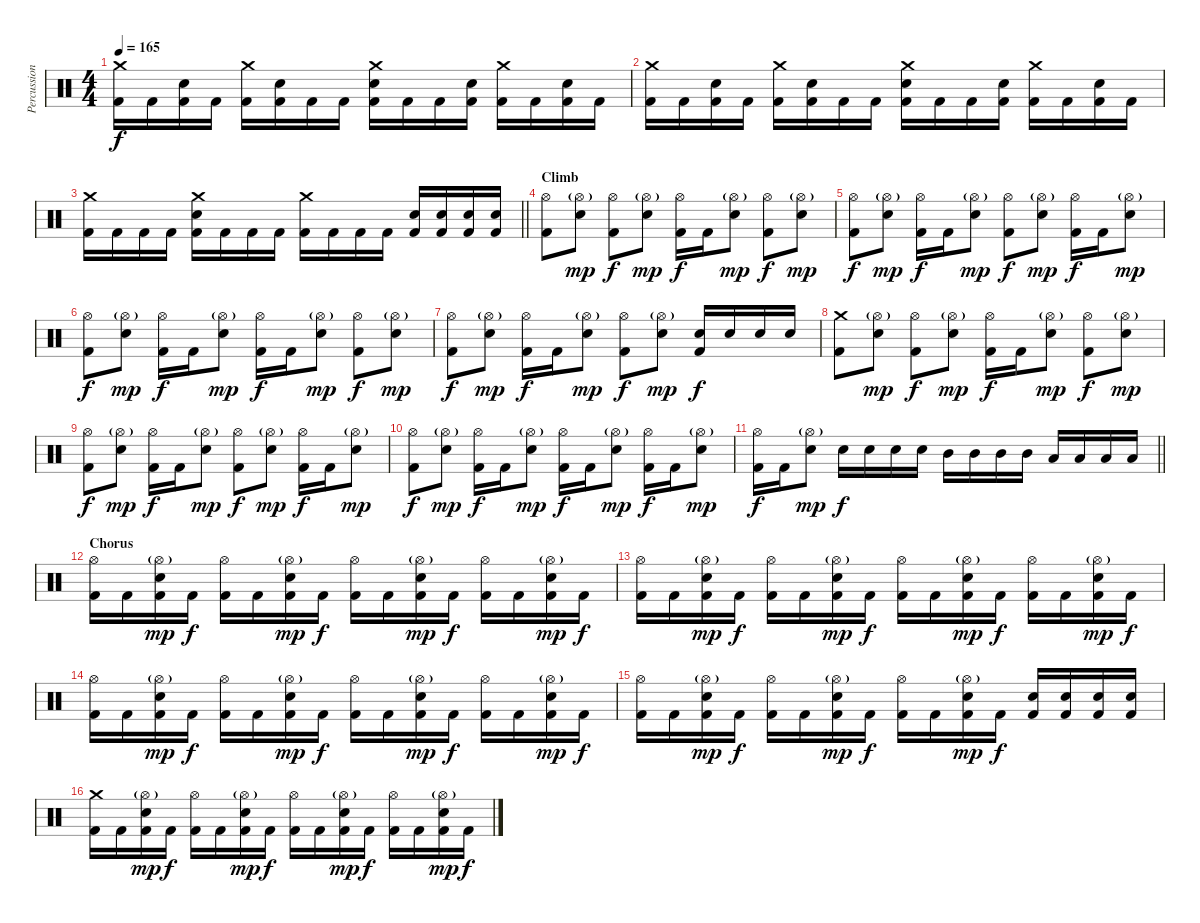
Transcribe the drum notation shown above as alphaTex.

\track ("Percussion" "Percussion") {instrument percussion}
\staff {score}
\articulation defaults
\ts (4 4)
\tempo 165
\clef neutral
\ks c
("Crash medium (hit)" "Kick (hit) 2").16{dy f} "Kick (hit) 2".16 ("Snare (hit) 2" "Kick (hit) 2").16 "Kick (hit) 2".16 ("Crash medium (hit)" "Kick (hit) 2").16 ("Snare (hit) 2" "Kick (hit) 2").16 "Kick (hit) 2".16 "Kick (hit) 2".16 ("Crash medium (hit)" "Snare (hit) 2" "Kick (hit) 2").16 "Kick (hit) 2".16 "Kick (hit) 2".16 ("Snare (hit) 2" "Kick (hit) 2").16 ("Crash medium (hit)" "Kick (hit) 2").16 "Kick (hit) 2".16 ("Snare (hit) 2" "Kick (hit) 2").16 "Kick (hit) 2".16 |
("Crash medium (hit)" "Kick (hit) 2").16 "Kick (hit) 2".16 ("Snare (hit) 2" "Kick (hit) 2").16 "Kick (hit) 2".16 ("Crash medium (hit)" "Kick (hit) 2").16 ("Snare (hit) 2" "Kick (hit) 2").16 "Kick (hit) 2".16 "Kick (hit) 2".16 ("Crash medium (hit)" "Snare (hit) 2" "Kick (hit) 2").16 "Kick (hit) 2".16 "Kick (hit) 2".16 ("Snare (hit) 2" "Kick (hit) 2").16 ("Crash medium (hit)" "Kick (hit) 2").16 "Kick (hit) 2".16 ("Snare (hit) 2" "Kick (hit) 2").16 "Kick (hit) 2".16 |
\barLineRight lightlight
("Crash medium (hit)" "Kick (hit) 2").16 "Kick (hit) 2".16 "Kick (hit) 2".16 "Kick (hit) 2".16 ("Crash medium (hit)" "Snare (hit) 2" "Kick (hit) 2").16 "Kick (hit) 2".16 "Kick (hit) 2".16 "Kick (hit) 2".16 ("Crash medium (hit)" "Kick (hit) 2").16 "Kick (hit) 2".16 "Kick (hit) 2".16 "Kick (hit) 2".16 ("Snare (hit) 2" "Kick (hit) 2").16 ("Snare (hit) 2" "Kick (hit) 2").16 ("Snare (hit) 2" "Kick (hit) 2").16 ("Snare (hit) 2" "Kick (hit) 2").16 |
\section ("" "Climb")
("Hi-Hat (open)" "Kick (hit) 2").8 ("Hi-Hat (open)"{g} "Snare (hit) 2").8{dy mp} ("Hi-Hat (open)" "Kick (hit) 2").8{dy f} ("Hi-Hat (open)"{g} "Snare (hit) 2").8{dy mp} ("Hi-Hat (open)" "Kick (hit) 2").16{dy f} "Kick (hit) 2".16 ("Hi-Hat (open)"{g} "Snare (hit) 2").8{dy mp} ("Hi-Hat (open)" "Kick (hit) 2").8{dy f} ("Hi-Hat (open)"{g} "Snare (hit) 2").8{dy mp} |
("Hi-Hat (open)" "Kick (hit) 2").8{dy f} ("Hi-Hat (open)"{g} "Snare (hit) 2").8{dy mp} ("Hi-Hat (open)" "Kick (hit) 2").16{dy f} "Kick (hit) 2".16 ("Hi-Hat (open)"{g} "Snare (hit) 2").8{dy mp} ("Hi-Hat (open)" "Kick (hit) 2").8{dy f} ("Hi-Hat (open)"{g} "Snare (hit) 2").8{dy mp} ("Hi-Hat (open)" "Kick (hit) 2").16{dy f} "Kick (hit) 2".16 ("Hi-Hat (open)"{g} "Snare (hit) 2").8{dy mp} |
("Hi-Hat (open)" "Kick (hit) 2").8{dy f} ("Hi-Hat (open)"{g} "Snare (hit) 2").8{dy mp} ("Hi-Hat (open)" "Kick (hit) 2").16{dy f} "Kick (hit) 2".16 ("Hi-Hat (open)"{g} "Snare (hit) 2").8{dy mp} ("Hi-Hat (open)" "Kick (hit) 2").16{dy f} "Kick (hit) 2".16 ("Hi-Hat (open)"{g} "Snare (hit) 2").8{dy mp} ("Hi-Hat (open)" "Kick (hit) 2").8{dy f} ("Hi-Hat (open)"{g} "Snare (hit) 2").8{dy mp} |
("Hi-Hat (open)" "Kick (hit) 2").8{dy f} ("Hi-Hat (open)"{g} "Snare (hit) 2").8{dy mp} ("Hi-Hat (open)" "Kick (hit) 2").16{dy f} "Kick (hit) 2".16 ("Hi-Hat (open)"{g} "Snare (hit) 2").8{dy mp} ("Hi-Hat (open)" "Kick (hit) 2").8{dy f} ("Hi-Hat (open)"{g} "Snare (hit) 2").8{dy mp} ("Snare (hit) 2" "Kick (hit) 2").16{dy f} "Snare (hit) 2".16 "Snare (hit) 2".16 "Snare (hit) 2".16 |
("Crash medium (hit)" "Kick (hit) 2").8 ("Hi-Hat (open)"{g} "Snare (hit) 2").8{dy mp} ("Hi-Hat (open)" "Kick (hit) 2").8{dy f} ("Hi-Hat (open)"{g} "Snare (hit) 2").8{dy mp} ("Hi-Hat (open)" "Kick (hit) 2").16{dy f} "Kick (hit) 2".16 ("Hi-Hat (open)"{g} "Snare (hit) 2").8{dy mp} ("Hi-Hat (open)" "Kick (hit) 2").8{dy f} ("Hi-Hat (open)"{g} "Snare (hit) 2").8{dy mp} |
("Hi-Hat (open)" "Kick (hit) 2").8{dy f} ("Hi-Hat (open)"{g} "Snare (hit) 2").8{dy mp} ("Hi-Hat (open)" "Kick (hit) 2").16{dy f} "Kick (hit) 2".16 ("Hi-Hat (open)"{g} "Snare (hit) 2").8{dy mp} ("Hi-Hat (open)" "Kick (hit) 2").8{dy f} ("Hi-Hat (open)"{g} "Snare (hit) 2").8{dy mp} ("Hi-Hat (open)" "Kick (hit) 2").16{dy f} "Kick (hit) 2".16 ("Hi-Hat (open)"{g} "Snare (hit) 2").8{dy mp} |
("Hi-Hat (open)" "Kick (hit) 2").8{dy f} ("Hi-Hat (open)"{g} "Snare (hit) 2").8{dy mp} ("Hi-Hat (open)" "Kick (hit) 2").16{dy f} "Kick (hit) 2".16 ("Hi-Hat (open)"{g} "Snare (hit) 2").8{dy mp} ("Hi-Hat (open)" "Kick (hit) 2").16{dy f} "Kick (hit) 2".16 ("Hi-Hat (open)"{g} "Snare (hit) 2").8{dy mp} ("Hi-Hat (open)" "Kick (hit) 2").16{dy f} "Kick (hit) 2".16 ("Hi-Hat (open)"{g} "Snare (hit) 2").8{dy mp} |
\barLineRight lightlight
("Hi-Hat (open)" "Kick (hit) 2").16{dy f} "Kick (hit) 2".16 ("Hi-Hat (open)"{g} "Snare (hit) 2").8{dy mp} "Snare (hit) 2".16{dy f} "Snare (hit) 2".16 "Snare (hit) 2".16 "Snare (hit) 2".16 "Mid Tom (hit)".16 "Mid Tom (hit)".16 "Mid Tom (hit)".16 "Mid Tom (hit)".16 "Low Tom (hit)".16 "Low Tom (hit)".16 "Low Tom (hit)".16 "Low Tom (hit)".16 |
\section ("" "Chorus")
("Hi-Hat (open)" "Kick (hit) 2").16 "Kick (hit) 2".16 ("Hi-Hat (open)"{g} "Snare (hit) 2" "Kick (hit) 2").16{dy mp} "Kick (hit) 2".16{dy f} ("Hi-Hat (open)" "Kick (hit) 2").16 "Kick (hit) 2".16 ("Hi-Hat (open)"{g} "Snare (hit) 2" "Kick (hit) 2").16{dy mp} "Kick (hit) 2".16{dy f} ("Hi-Hat (open)" "Kick (hit) 2").16 "Kick (hit) 2".16 ("Hi-Hat (open)"{g} "Snare (hit) 2" "Kick (hit) 2").16{dy mp} "Kick (hit) 2".16{dy f} ("Hi-Hat (open)" "Kick (hit) 2").16 "Kick (hit) 2".16 ("Hi-Hat (open)"{g} "Snare (hit) 2" "Kick (hit) 2").16{dy mp} "Kick (hit) 2".16{dy f} |
("Hi-Hat (open)" "Kick (hit) 2").16 "Kick (hit) 2".16 ("Hi-Hat (open)"{g} "Snare (hit) 2" "Kick (hit) 2").16{dy mp} "Kick (hit) 2".16{dy f} ("Hi-Hat (open)" "Kick (hit) 2").16 "Kick (hit) 2".16 ("Hi-Hat (open)"{g} "Snare (hit) 2" "Kick (hit) 2").16{dy mp} "Kick (hit) 2".16{dy f} ("Hi-Hat (open)" "Kick (hit) 2").16 "Kick (hit) 2".16 ("Hi-Hat (open)"{g} "Snare (hit) 2" "Kick (hit) 2").16{dy mp} "Kick (hit) 2".16{dy f} ("Hi-Hat (open)" "Kick (hit) 2").16 "Kick (hit) 2".16 ("Hi-Hat (open)"{g} "Snare (hit) 2" "Kick (hit) 2").16{dy mp} "Kick (hit) 2".16{dy f} |
("Hi-Hat (open)" "Kick (hit) 2").16 "Kick (hit) 2".16 ("Hi-Hat (open)"{g} "Snare (hit) 2" "Kick (hit) 2").16{dy mp} "Kick (hit) 2".16{dy f} ("Hi-Hat (open)" "Kick (hit) 2").16 "Kick (hit) 2".16 ("Hi-Hat (open)"{g} "Snare (hit) 2" "Kick (hit) 2").16{dy mp} "Kick (hit) 2".16{dy f} ("Hi-Hat (open)" "Kick (hit) 2").16 "Kick (hit) 2".16 ("Hi-Hat (open)"{g} "Snare (hit) 2" "Kick (hit) 2").16{dy mp} "Kick (hit) 2".16{dy f} ("Hi-Hat (open)" "Kick (hit) 2").16 "Kick (hit) 2".16 ("Hi-Hat (open)"{g} "Snare (hit) 2" "Kick (hit) 2").16{dy mp} "Kick (hit) 2".16{dy f} |
("Hi-Hat (open)" "Kick (hit) 2").16 "Kick (hit) 2".16 ("Hi-Hat (open)"{g} "Snare (hit) 2" "Kick (hit) 2").16{dy mp} "Kick (hit) 2".16{dy f} ("Hi-Hat (open)" "Kick (hit) 2").16 "Kick (hit) 2".16 ("Hi-Hat (open)"{g} "Snare (hit) 2" "Kick (hit) 2").16{dy mp} "Kick (hit) 2".16{dy f} ("Hi-Hat (open)" "Kick (hit) 2").16 "Kick (hit) 2".16 ("Hi-Hat (open)"{g} "Snare (hit) 2" "Kick (hit) 2").16{dy mp} "Kick (hit) 2".16{dy f} ("Snare (hit) 2" "Kick (hit) 2").16 ("Snare (hit) 2" "Kick (hit) 2").16 ("Snare (hit) 2" "Kick (hit) 2").16 ("Snare (hit) 2" "Kick (hit) 2").16 |
("Crash medium (hit)" "Kick (hit) 2").16 "Kick (hit) 2".16 ("Hi-Hat (open)"{g} "Snare (hit) 2" "Kick (hit) 2").16{dy mp} "Kick (hit) 2".16{dy f} ("Hi-Hat (open)" "Kick (hit) 2").16 "Kick (hit) 2".16 ("Hi-Hat (open)"{g} "Snare (hit) 2" "Kick (hit) 2").16{dy mp} "Kick (hit) 2".16{dy f} ("Hi-Hat (open)" "Kick (hit) 2").16 "Kick (hit) 2".16 ("Hi-Hat (open)"{g} "Snare (hit) 2" "Kick (hit) 2").16{dy mp} "Kick (hit) 2".16{dy f} ("Hi-Hat (open)" "Kick (hit) 2").16 "Kick (hit) 2".16 ("Hi-Hat (open)"{g} "Snare (hit) 2" "Kick (hit) 2").16{dy mp} "Kick (hit) 2".16{dy f}
